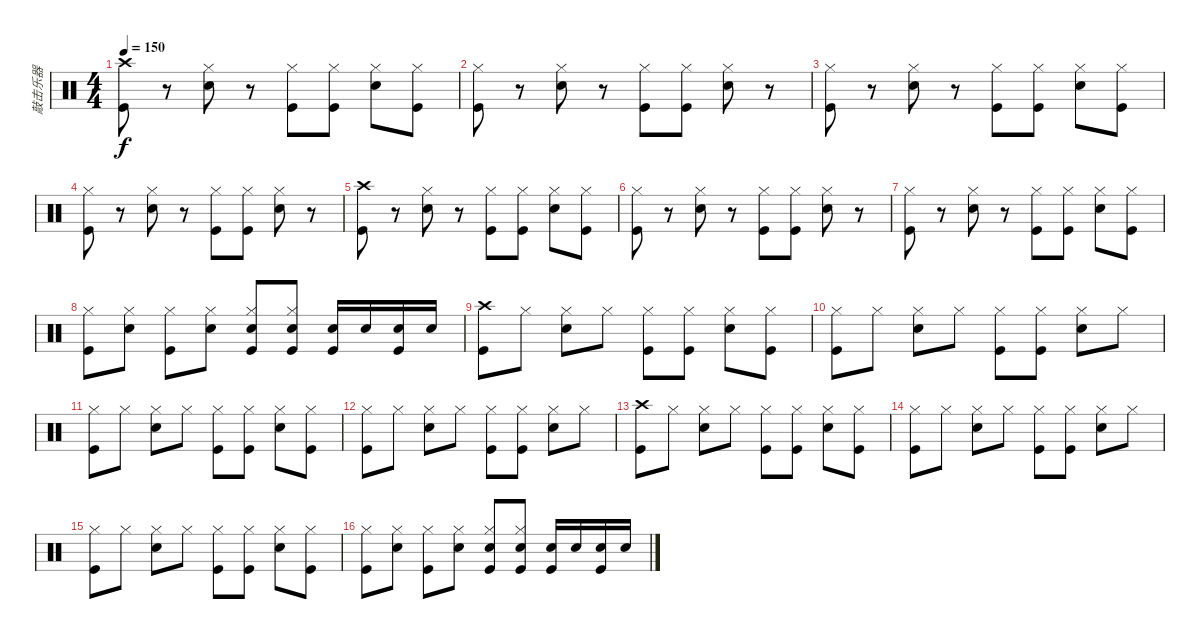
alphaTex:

\track ("敲击乐器" "敲击乐器") {instrument percussion}
\staff {score}
\articulation defaults
\ts (4 4)
\tempo 150
\clef neutral
\ks c
("Crash high (hit)" "Kick (hit)").8{dy f} r.8 ("Hi-Hat (closed)" "Electric Snare (hit)").8 r.8 ("Hi-Hat (closed)" "Kick (hit)").8 ("Hi-Hat (closed)" "Kick (hit)").8 ("Hi-Hat (closed)" "Electric Snare (hit)").8 ("Hi-Hat (closed)" "Kick (hit)").8 |
("Hi-Hat (closed)" "Kick (hit)").8 r.8 ("Hi-Hat (closed)" "Electric Snare (hit)").8 r.8 ("Hi-Hat (closed)" "Kick (hit)").8 ("Hi-Hat (closed)" "Kick (hit)").8 ("Hi-Hat (closed)" "Electric Snare (hit)").8 r.8 |
("Hi-Hat (closed)" "Kick (hit)").8 r.8 ("Hi-Hat (closed)" "Electric Snare (hit)").8 r.8 ("Hi-Hat (closed)" "Kick (hit)").8 ("Hi-Hat (closed)" "Kick (hit)").8 ("Hi-Hat (closed)" "Electric Snare (hit)").8 ("Hi-Hat (closed)" "Kick (hit)").8 |
("Hi-Hat (closed)" "Kick (hit)").8 r.8 ("Hi-Hat (closed)" "Electric Snare (hit)").8 r.8 ("Hi-Hat (closed)" "Kick (hit)").8 ("Hi-Hat (closed)" "Kick (hit)").8 ("Hi-Hat (closed)" "Electric Snare (hit)").8 r.8 |
("Crash high (hit)" "Kick (hit)").8 r.8 ("Hi-Hat (closed)" "Electric Snare (hit)").8 r.8 ("Hi-Hat (closed)" "Kick (hit)").8 ("Hi-Hat (closed)" "Kick (hit)").8 ("Hi-Hat (closed)" "Electric Snare (hit)").8 ("Hi-Hat (closed)" "Kick (hit)").8 |
("Hi-Hat (closed)" "Kick (hit)").8 r.8 ("Hi-Hat (closed)" "Electric Snare (hit)").8 r.8 ("Hi-Hat (closed)" "Kick (hit)").8 ("Hi-Hat (closed)" "Kick (hit)").8 ("Hi-Hat (closed)" "Electric Snare (hit)").8 r.8 |
("Hi-Hat (closed)" "Kick (hit)").8 r.8 ("Hi-Hat (closed)" "Electric Snare (hit)").8 r.8 ("Hi-Hat (closed)" "Kick (hit)").8 ("Hi-Hat (closed)" "Kick (hit)").8 ("Hi-Hat (closed)" "Electric Snare (hit)").8 ("Hi-Hat (closed)" "Kick (hit)").8 |
("Hi-Hat (closed)" "Kick (hit)").8 ("Hi-Hat (closed)" "Electric Snare (hit)").8 ("Hi-Hat (closed)" "Kick (hit)").8 ("Hi-Hat (closed)" "Electric Snare (hit)").8 ("Hi-Hat (closed)" "Electric Snare (hit)" "Kick (hit)").8 ("Hi-Hat (closed)" "Electric Snare (hit)" "Kick (hit)").8 ("Electric Snare (hit)" "Kick (hit)").16 "Electric Snare (hit)".16 ("Electric Snare (hit)" "Kick (hit)").16 "Electric Snare (hit)".16 |
("Crash high (hit)" "Kick (hit)").8 "Hi-Hat (closed)".8 ("Hi-Hat (closed)" "Electric Snare (hit)").8 "Hi-Hat (closed)".8 ("Hi-Hat (closed)" "Kick (hit)").8 ("Hi-Hat (closed)" "Kick (hit)").8 ("Hi-Hat (closed)" "Electric Snare (hit)").8 ("Hi-Hat (closed)" "Kick (hit)").8 |
("Hi-Hat (closed)" "Kick (hit)").8 "Hi-Hat (closed)".8 ("Hi-Hat (closed)" "Electric Snare (hit)").8 "Hi-Hat (closed)".8 ("Hi-Hat (closed)" "Kick (hit)").8 ("Hi-Hat (closed)" "Kick (hit)").8 ("Hi-Hat (closed)" "Electric Snare (hit)").8 "Hi-Hat (closed)".8 |
("Hi-Hat (closed)" "Kick (hit)").8 "Hi-Hat (closed)".8 ("Hi-Hat (closed)" "Electric Snare (hit)").8 "Hi-Hat (closed)".8 ("Hi-Hat (closed)" "Kick (hit)").8 ("Hi-Hat (closed)" "Kick (hit)").8 ("Hi-Hat (closed)" "Electric Snare (hit)").8 ("Hi-Hat (closed)" "Kick (hit)").8 |
("Hi-Hat (closed)" "Kick (hit)").8 "Hi-Hat (closed)".8 ("Hi-Hat (closed)" "Electric Snare (hit)").8 "Hi-Hat (closed)".8 ("Hi-Hat (closed)" "Kick (hit)").8 ("Hi-Hat (closed)" "Kick (hit)").8 ("Hi-Hat (closed)" "Electric Snare (hit)").8 "Hi-Hat (closed)".8 |
("Crash high (hit)" "Kick (hit)").8 "Hi-Hat (closed)".8 ("Hi-Hat (closed)" "Electric Snare (hit)").8 "Hi-Hat (closed)".8 ("Hi-Hat (closed)" "Kick (hit)").8 ("Hi-Hat (closed)" "Kick (hit)").8 ("Hi-Hat (closed)" "Electric Snare (hit)").8 ("Hi-Hat (closed)" "Kick (hit)").8 |
("Hi-Hat (closed)" "Kick (hit)").8 "Hi-Hat (closed)".8 ("Hi-Hat (closed)" "Electric Snare (hit)").8 "Hi-Hat (closed)".8 ("Hi-Hat (closed)" "Kick (hit)").8 ("Hi-Hat (closed)" "Kick (hit)").8 ("Hi-Hat (closed)" "Electric Snare (hit)").8 "Hi-Hat (closed)".8 |
("Hi-Hat (closed)" "Kick (hit)").8 "Hi-Hat (closed)".8 ("Hi-Hat (closed)" "Electric Snare (hit)").8 "Hi-Hat (closed)".8 ("Hi-Hat (closed)" "Kick (hit)").8 ("Hi-Hat (closed)" "Kick (hit)").8 ("Hi-Hat (closed)" "Electric Snare (hit)").8 ("Hi-Hat (closed)" "Kick (hit)").8 |
("Hi-Hat (closed)" "Kick (hit)").8 ("Hi-Hat (closed)" "Electric Snare (hit)").8 ("Hi-Hat (closed)" "Kick (hit)").8 ("Hi-Hat (closed)" "Electric Snare (hit)").8 ("Hi-Hat (closed)" "Electric Snare (hit)" "Kick (hit)").8 ("Hi-Hat (closed)" "Electric Snare (hit)" "Kick (hit)").8 ("Electric Snare (hit)" "Kick (hit)").16 "Electric Snare (hit)".16 ("Electric Snare (hit)" "Kick (hit)").16 "Electric Snare (hit)".16
